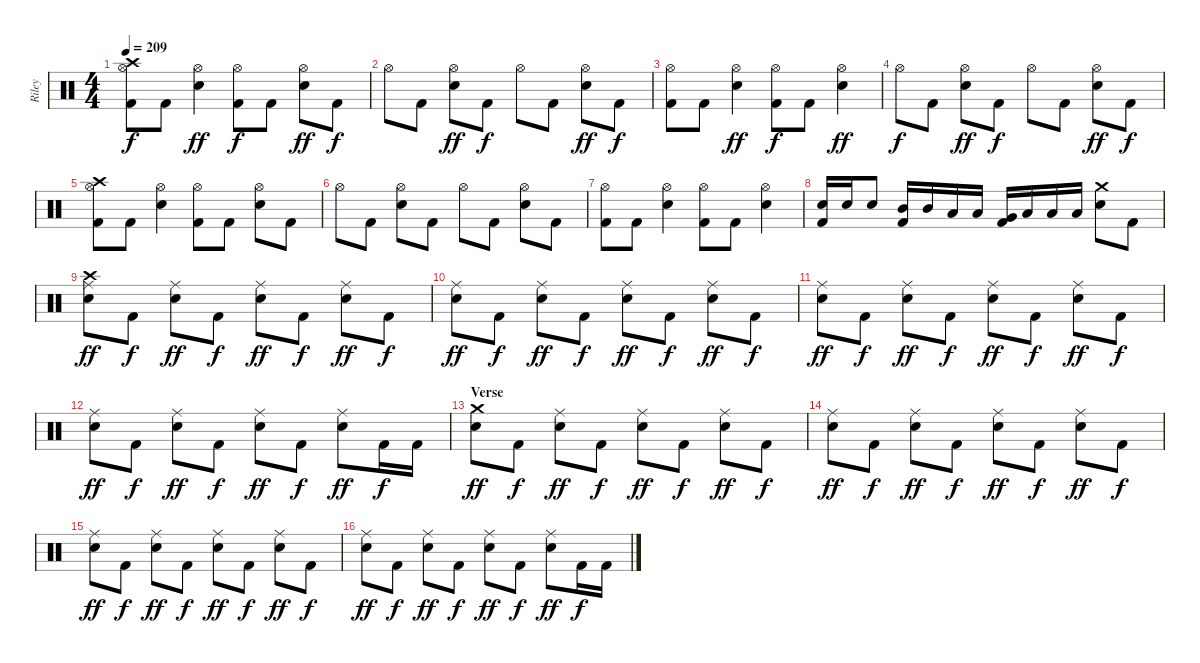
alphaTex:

\track ("Riley" "Riley") {instrument percussion}
\staff {score}
\articulation defaults
\ts (4 4)
\tempo 209
\clef neutral
\ks c
("Crash high (hit)" "Hi-Hat (open)" "Kick (hit) 2").8{dy f} "Kick (hit) 2".8 ("Hi-Hat (open)" "Electric Snare (hit)").4{dy ff} ("Hi-Hat (open)" "Kick (hit) 2").8{dy f} "Kick (hit) 2".8 ("Hi-Hat (open)" "Electric Snare (hit)").8{dy ff} "Kick (hit) 2".8{dy f} |
"Hi-Hat (open)".8 "Kick (hit) 2".8 ("Hi-Hat (open)" "Electric Snare (hit)").8{dy ff} "Kick (hit) 2".8{dy f} "Hi-Hat (open)".8 "Kick (hit) 2".8 ("Hi-Hat (open)" "Electric Snare (hit)").8{dy ff} "Kick (hit) 2".8{dy f} |
("Hi-Hat (open)" "Kick (hit) 2").8 "Kick (hit) 2".8 ("Hi-Hat (open)" "Electric Snare (hit)").4{dy ff} ("Hi-Hat (open)" "Kick (hit) 2").8{dy f} "Kick (hit) 2".8 ("Hi-Hat (open)" "Electric Snare (hit)").4{dy ff} |
"Hi-Hat (open)".8{dy f} "Kick (hit) 2".8 ("Hi-Hat (open)" "Electric Snare (hit)").8{dy ff} "Kick (hit) 2".8{dy f} "Hi-Hat (open)".8 "Kick (hit) 2".8 ("Hi-Hat (open)" "Electric Snare (hit)").8{dy ff} "Kick (hit) 2".8{dy f} |
("Crash high (hit)" "Hi-Hat (open)" "Kick (hit) 2").8 "Kick (hit) 2".8 ("Hi-Hat (open)" "Electric Snare (hit)").4 ("Hi-Hat (open)" "Kick (hit) 2").8 "Kick (hit) 2".8 ("Hi-Hat (open)" "Electric Snare (hit)").8 "Kick (hit) 2".8 |
"Hi-Hat (open)".8 "Kick (hit) 2".8 ("Hi-Hat (open)" "Electric Snare (hit)").8 "Kick (hit) 2".8 "Hi-Hat (open)".8 "Kick (hit) 2".8 ("Hi-Hat (open)" "Electric Snare (hit)").8 "Kick (hit) 2".8 |
("Hi-Hat (open)" "Kick (hit) 2").8 "Kick (hit) 2".8 ("Hi-Hat (open)" "Electric Snare (hit)").4 ("Hi-Hat (open)" "Kick (hit) 2").8 "Kick (hit) 2".8 ("Hi-Hat (open)" "Electric Snare (hit)").4 |
("Electric Snare (hit)" "Kick (hit) 2").16 "Electric Snare (hit)".16 "Electric Snare (hit)".8 ("Mid Tom (hit)" "Kick (hit) 2").16 "Mid Tom (hit)".16 "Low Tom (hit)".16 "Low Tom (hit)".16 ("Very Low Tom (hit)" "Kick (hit) 2").16 "Low Tom (hit)".16 "Low Tom (hit)".16 "Low Tom (hit)".16 ("Crash medium (hit)" "Electric Snare (hit)").8 "Kick (hit) 2".8 |
("Crash high (hit)" "Ride (middle)" "Electric Snare (hit)").8{dy ff} "Kick (hit) 2".8{dy f} ("Ride (middle)" "Electric Snare (hit)").8{dy ff} "Kick (hit) 2".8{dy f} ("Ride (middle)" "Electric Snare (hit)").8{dy ff} "Kick (hit) 2".8{dy f} ("Ride (middle)" "Electric Snare (hit)").8{dy ff} "Kick (hit) 2".8{dy f} |
("Ride (middle)" "Electric Snare (hit)").8{dy ff} "Kick (hit) 2".8{dy f} ("Ride (middle)" "Electric Snare (hit)").8{dy ff} "Kick (hit) 2".8{dy f} ("Ride (middle)" "Electric Snare (hit)").8{dy ff} "Kick (hit) 2".8{dy f} ("Ride (middle)" "Electric Snare (hit)").8{dy ff} "Kick (hit) 2".8{dy f} |
("Ride (middle)" "Electric Snare (hit)").8{dy ff} "Kick (hit) 2".8{dy f} ("Ride (middle)" "Electric Snare (hit)").8{dy ff} "Kick (hit) 2".8{dy f} ("Ride (middle)" "Electric Snare (hit)").8{dy ff} "Kick (hit) 2".8{dy f} ("Ride (middle)" "Electric Snare (hit)").8{dy ff} "Kick (hit) 2".8{dy f} |
("Ride (middle)" "Electric Snare (hit)").8{dy ff} "Kick (hit) 2".8{dy f} ("Ride (middle)" "Electric Snare (hit)").8{dy ff} "Kick (hit) 2".8{dy f} ("Ride (middle)" "Electric Snare (hit)").8{dy ff} "Kick (hit) 2".8{dy f} ("Ride (middle)" "Electric Snare (hit)").8{dy ff} "Kick (hit) 2".16{dy f} "Kick (hit) 2".16 |
\section ("" "Verse")
("Crash medium (hit)" "Electric Snare (hit)").8{dy ff} "Kick (hit) 2".8{dy f} ("Ride (middle)" "Electric Snare (hit)").8{dy ff} "Kick (hit) 2".8{dy f} ("Ride (middle)" "Electric Snare (hit)").8{dy ff} "Kick (hit) 2".8{dy f} ("Ride (middle)" "Electric Snare (hit)").8{dy ff} "Kick (hit) 2".8{dy f} |
("Ride (middle)" "Electric Snare (hit)").8{dy ff} "Kick (hit) 2".8{dy f} ("Ride (middle)" "Electric Snare (hit)").8{dy ff} "Kick (hit) 2".8{dy f} ("Ride (middle)" "Electric Snare (hit)").8{dy ff} "Kick (hit) 2".8{dy f} ("Ride (middle)" "Electric Snare (hit)").8{dy ff} "Kick (hit) 2".8{dy f} |
("Ride (middle)" "Electric Snare (hit)").8{dy ff} "Kick (hit) 2".8{dy f} ("Ride (middle)" "Electric Snare (hit)").8{dy ff} "Kick (hit) 2".8{dy f} ("Ride (middle)" "Electric Snare (hit)").8{dy ff} "Kick (hit) 2".8{dy f} ("Ride (middle)" "Electric Snare (hit)").8{dy ff} "Kick (hit) 2".8{dy f} |
("Ride (middle)" "Electric Snare (hit)").8{dy ff} "Kick (hit) 2".8{dy f} ("Ride (middle)" "Electric Snare (hit)").8{dy ff} "Kick (hit) 2".8{dy f} ("Ride (middle)" "Electric Snare (hit)").8{dy ff} "Kick (hit) 2".8{dy f} ("Ride (middle)" "Electric Snare (hit)").8{dy ff} "Kick (hit) 2".16{dy f} "Kick (hit) 2".16
